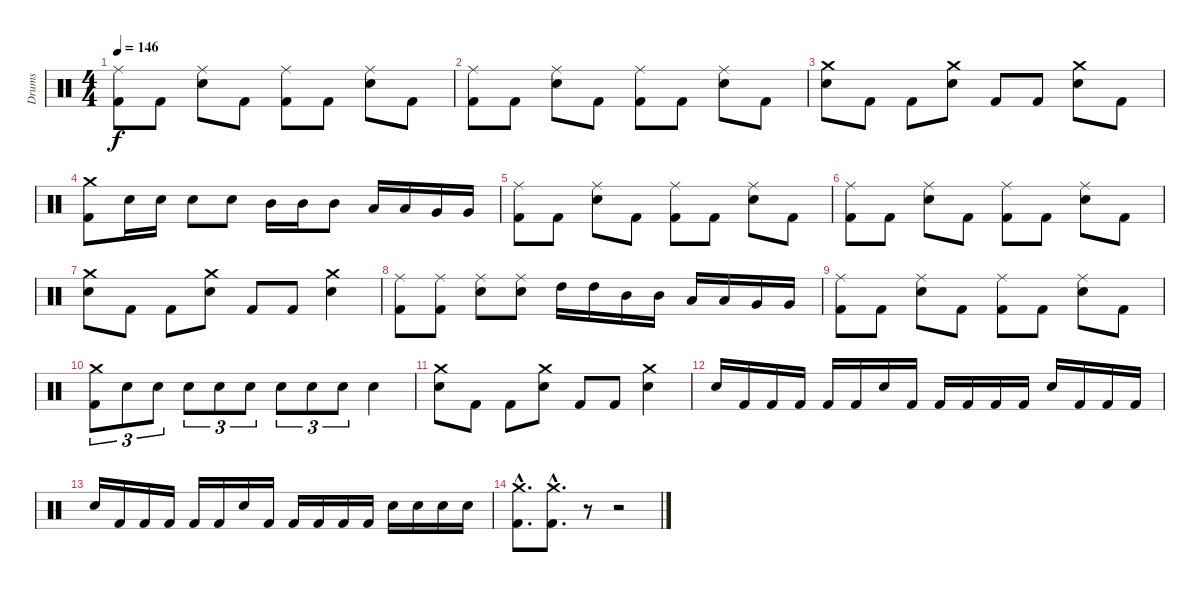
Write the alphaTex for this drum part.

\track ("Drums" "Drums") {instrument percussion}
\staff {score}
\articulation defaults
\ts (4 4)
\tempo 146
\clef neutral
\ks c
("Ride (middle)" "Kick (hit) 2").8{dy f} "Kick (hit) 2".8 ("Ride (middle)" "Electric Snare (hit)").8 "Kick (hit) 2".8 ("Ride (middle)" "Kick (hit) 2").8 "Kick (hit) 2".8 ("Ride (middle)" "Electric Snare (hit)").8 "Kick (hit) 2".8 |
("Ride (middle)" "Kick (hit) 2").8 "Kick (hit) 2".8 ("Ride (middle)" "Electric Snare (hit)").8 "Kick (hit) 2".8 ("Ride (middle)" "Kick (hit) 2").8 "Kick (hit) 2".8 ("Ride (middle)" "Electric Snare (hit)").8 "Kick (hit) 2".8 |
("Crash medium (hit)" "Electric Snare (hit)").8 "Kick (hit) 2".8 "Kick (hit) 2".8 ("Crash medium (hit)" "Electric Snare (hit)").8 "Kick (hit) 2".8 "Kick (hit) 2".8 ("Crash medium (hit)" "Electric Snare (hit)").8 "Kick (hit) 2".8 |
("Crash medium (hit)" "Kick (hit) 2").8 "Electric Snare (hit)".16 "Electric Snare (hit)".16 "Electric Snare (hit)".8 "Electric Snare (hit)".8 "Mid Tom (hit)".16 "Mid Tom (hit)".16 "Mid Tom (hit)".8 "Low Tom (hit)".16 "Low Tom (hit)".16 "Very Low Tom (hit)".16 "Very Low Tom (hit)".16 |
("Ride (middle)" "Kick (hit) 2").8 "Kick (hit) 2".8 ("Ride (middle)" "Electric Snare (hit)").8 "Kick (hit) 2".8 ("Ride (middle)" "Kick (hit) 2").8 "Kick (hit) 2".8 ("Ride (middle)" "Electric Snare (hit)").8 "Kick (hit) 2".8 |
("Ride (middle)" "Kick (hit) 2").8 "Kick (hit) 2".8 ("Ride (middle)" "Electric Snare (hit)").8 "Kick (hit) 2".8 ("Ride (middle)" "Kick (hit) 2").8 "Kick (hit) 2".8 ("Ride (middle)" "Electric Snare (hit)").8 "Kick (hit) 2".8 |
("Crash medium (hit)" "Electric Snare (hit)").8 "Kick (hit) 2".8 "Kick (hit) 2".8 ("Crash medium (hit)" "Electric Snare (hit)").8 "Kick (hit) 2".8 "Kick (hit) 2".8 ("Crash medium (hit)" "Electric Snare (hit)").4 |
("Ride (middle)" "Kick (hit) 2").8 ("Ride (middle)" "Kick (hit) 2").8 ("Ride (middle)" "Electric Snare (hit)").8 ("Ride (middle)" "Electric Snare (hit)").8 "High Tom (hit)".16 "High Tom (hit)".16 "Mid Tom (hit)".16 "Mid Tom (hit)".16 "Low Tom (hit)".16 "Low Tom (hit)".16 "Very Low Tom (hit)".16 "Very Low Tom (hit)".16 |
("Ride (middle)" "Kick (hit) 2").8 "Kick (hit) 2".8 ("Ride (middle)" "Electric Snare (hit)").8 "Kick (hit) 2".8 ("Ride (middle)" "Kick (hit) 2").8 "Kick (hit) 2".8 ("Ride (middle)" "Electric Snare (hit)").8 "Kick (hit) 2".8 |
("Crash medium (hit)" "Kick (hit) 2").8{tu (3 2)} "Electric Snare (hit)".8{tu (3 2)} "Electric Snare (hit)".8{tu (3 2)} "Electric Snare (hit)".8{tu (3 2)} "Electric Snare (hit)".8{tu (3 2)} "Electric Snare (hit)".8{tu (3 2)} "Electric Snare (hit)".8{tu (3 2)} "Electric Snare (hit)".8{tu (3 2)} "Electric Snare (hit)".8{tu (3 2)} "Electric Snare (hit)".4 |
("Crash medium (hit)" "Electric Snare (hit)").8 "Kick (hit) 2".8 "Kick (hit) 2".8 ("Crash medium (hit)" "Electric Snare (hit)").8 "Kick (hit) 2".8 "Kick (hit) 2".8 ("Crash medium (hit)" "Electric Snare (hit)").4 |
"Electric Snare (hit)".16 "Kick (hit) 2".16 "Kick (hit) 2".16 "Kick (hit) 2".16 "Kick (hit) 2".16 "Kick (hit) 2".16 "Electric Snare (hit)".16 "Kick (hit) 2".16 "Kick (hit) 2".16 "Kick (hit) 2".16 "Kick (hit) 2".16 "Kick (hit) 2".16 "Electric Snare (hit)".16 "Kick (hit) 2".16 "Kick (hit) 2".16 "Kick (hit) 2".16 |
"Electric Snare (hit)".16 "Kick (hit) 2".16 "Kick (hit) 2".16 "Kick (hit) 2".16 "Kick (hit) 2".16 "Kick (hit) 2".16 "Electric Snare (hit)".16 "Kick (hit) 2".16 "Kick (hit) 2".16 "Kick (hit) 2".16 "Kick (hit) 2".16 "Kick (hit) 2".16 "Electric Snare (hit)".16 "Electric Snare (hit)".16 "Electric Snare (hit)".16 "Electric Snare (hit)".16 |
("Crash medium (hit)"{hac} "Kick (hit) 2"{hac}).8{d} ("Crash medium (hit)"{hac} "Kick (hit) 2"{hac}).8{d} r.8 r.2
